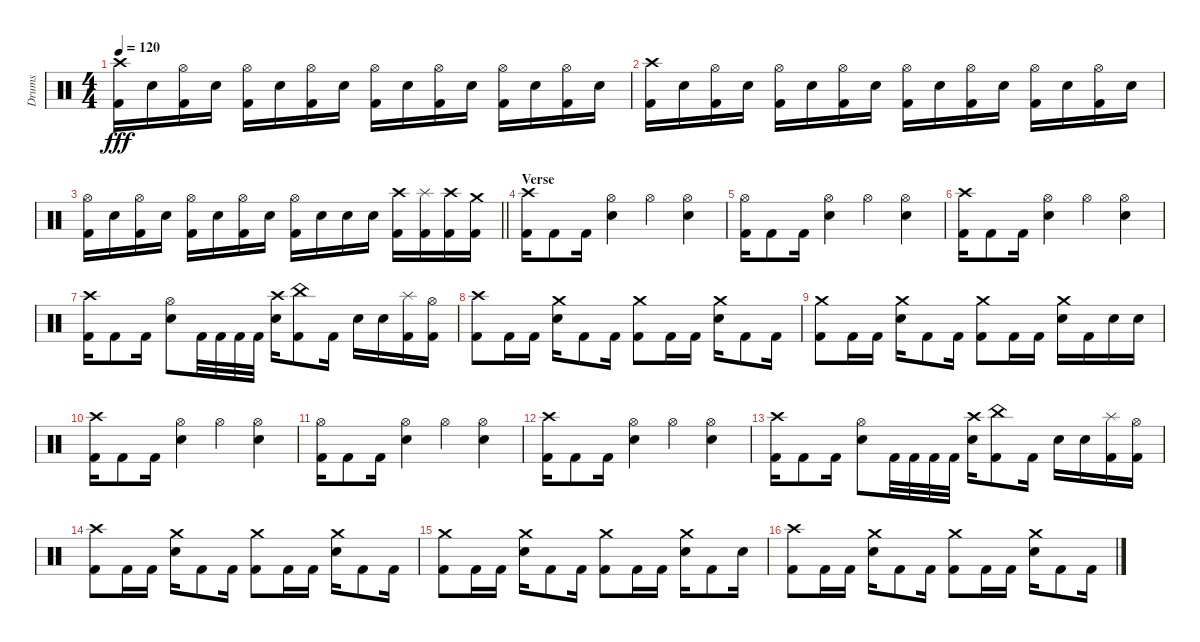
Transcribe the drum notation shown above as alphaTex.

\track ("Drums" "Drums") {instrument percussion}
\staff {score}
\articulation defaults
\ts (4 4)
\tempo 120
\clef neutral
\ks c
("Crash high (hit)" "Kick (hit) 2").16{dy fff} "Electric Snare (hit)".16 ("Hi-Hat (open)" "Kick (hit) 2").16 "Electric Snare (hit)".16 ("Hi-Hat (open)" "Kick (hit) 2").16 "Electric Snare (hit)".16 ("Hi-Hat (open)" "Kick (hit) 2").16 "Electric Snare (hit)".16 ("Hi-Hat (open)" "Kick (hit) 2").16 "Electric Snare (hit)".16 ("Hi-Hat (open)" "Kick (hit) 2").16 "Electric Snare (hit)".16 ("Hi-Hat (open)" "Kick (hit) 2").16 "Electric Snare (hit)".16 ("Hi-Hat (open)" "Kick (hit) 2").16 "Electric Snare (hit)".16 |
("Crash high (hit)" "Kick (hit) 2").16 "Electric Snare (hit)".16 ("Hi-Hat (open)" "Kick (hit) 2").16 "Electric Snare (hit)".16 ("Hi-Hat (open)" "Kick (hit) 2").16 "Electric Snare (hit)".16 ("Hi-Hat (open)" "Kick (hit) 2").16 "Electric Snare (hit)".16 ("Hi-Hat (open)" "Kick (hit) 2").16 "Electric Snare (hit)".16 ("Hi-Hat (open)" "Kick (hit) 2").16 "Electric Snare (hit)".16 ("Hi-Hat (open)" "Kick (hit) 2").16 "Electric Snare (hit)".16 ("Hi-Hat (open)" "Kick (hit) 2").16 "Electric Snare (hit)".16 |
\barLineRight lightlight
("Hi-Hat (open)" "Kick (hit) 2").16 "Electric Snare (hit)".16 ("Hi-Hat (open)" "Kick (hit) 2").16 "Electric Snare (hit)".16 ("Hi-Hat (open)" "Kick (hit) 2").16 "Electric Snare (hit)".16 ("Hi-Hat (open)" "Kick (hit) 2").16 "Electric Snare (hit)".16 ("Hi-Hat (open)" "Kick (hit) 2").16 "Electric Snare (hit)".16 "Electric Snare (hit)".16 "Electric Snare (hit)".16 ("Crash high (hit)" "Kick (hit) 2").16 ("Splash (hit)" "Kick (hit) 2").16 ("Crash high (hit)" "Kick (hit) 2").16 ("Crash medium (hit)" "Kick (hit) 2").16 |
\section ("" "Verse")
("Crash high (hit)" "Kick (hit) 2").16 "Kick (hit) 2".8 "Kick (hit) 2".16 ("Hi-Hat (open)" "Electric Snare (hit)").4 "Hi-Hat (open)".4 ("Hi-Hat (open)" "Electric Snare (hit)").4 |
("Hi-Hat (open)" "Kick (hit) 2").16 "Kick (hit) 2".8 "Kick (hit) 2".16 ("Hi-Hat (open)" "Electric Snare (hit)").4 "Hi-Hat (open)".4 ("Hi-Hat (open)" "Electric Snare (hit)").4 |
("Crash high (hit)" "Kick (hit) 2").16 "Kick (hit) 2".8 "Kick (hit) 2".16 ("Hi-Hat (open)" "Electric Snare (hit)").4 "Hi-Hat (open)".4 ("Hi-Hat (open)" "Electric Snare (hit)").4 |
("Crash high (hit)" "Kick (hit) 2").16 "Kick (hit) 2".8 "Kick (hit) 2".16 ("Hi-Hat (open)" "Electric Snare (hit)").8 "Kick (hit) 2".32 "Kick (hit) 2".32 "Kick (hit) 2".32 "Kick (hit) 2".32 ("Crash high (hit)" "Electric Snare (hit)").16 ("China (hit)" "Kick (hit) 2").8 "Kick (hit) 2".16 "Electric Snare (hit)".16 "Electric Snare (hit)".16 ("Splash (hit)" "Kick (hit) 2").16 ("Hi-Hat (open)" "Kick (hit) 2").16 |
("Crash high (hit)" "Kick (hit) 2").8 "Kick (hit) 2".16 "Kick (hit) 2".16 ("Crash medium (hit)" "Electric Snare (hit)").16 "Kick (hit) 2".8 "Kick (hit) 2".16 ("Crash medium (hit)" "Kick (hit) 2").8 "Kick (hit) 2".16 "Kick (hit) 2".16 ("Crash medium (hit)" "Electric Snare (hit)").16 "Kick (hit) 2".8 "Kick (hit) 2".16 |
("Crash medium (hit)" "Kick (hit) 2").8 "Kick (hit) 2".16 "Kick (hit) 2".16 ("Crash medium (hit)" "Electric Snare (hit)").16 "Kick (hit) 2".8 "Kick (hit) 2".16 ("Crash medium (hit)" "Kick (hit) 2").8 "Kick (hit) 2".16 "Kick (hit) 2".16 ("Crash medium (hit)" "Electric Snare (hit)").16 "Kick (hit) 2".16 "Electric Snare (hit)".16 "Electric Snare (hit)".16 |
("Crash high (hit)" "Kick (hit) 2").16 "Kick (hit) 2".8 "Kick (hit) 2".16 ("Hi-Hat (open)" "Electric Snare (hit)").4 "Hi-Hat (open)".4 ("Hi-Hat (open)" "Electric Snare (hit)").4 |
("Hi-Hat (open)" "Kick (hit) 2").16 "Kick (hit) 2".8 "Kick (hit) 2".16 ("Hi-Hat (open)" "Electric Snare (hit)").4 "Hi-Hat (open)".4 ("Hi-Hat (open)" "Electric Snare (hit)").4 |
("Crash high (hit)" "Kick (hit) 2").16 "Kick (hit) 2".8 "Kick (hit) 2".16 ("Hi-Hat (open)" "Electric Snare (hit)").4 "Hi-Hat (open)".4 ("Hi-Hat (open)" "Electric Snare (hit)").4 |
("Crash high (hit)" "Kick (hit) 2").16 "Kick (hit) 2".8 "Kick (hit) 2".16 ("Hi-Hat (open)" "Electric Snare (hit)").8 "Kick (hit) 2".32 "Kick (hit) 2".32 "Kick (hit) 2".32 "Kick (hit) 2".32 ("Crash high (hit)" "Electric Snare (hit)").16 ("China (hit)" "Kick (hit) 2").8 "Kick (hit) 2".16 "Electric Snare (hit)".16 "Electric Snare (hit)".16 ("Splash (hit)" "Kick (hit) 2").16 ("Hi-Hat (open)" "Kick (hit) 2").16 |
("Crash high (hit)" "Kick (hit) 2").8 "Kick (hit) 2".16 "Kick (hit) 2".16 ("Crash medium (hit)" "Electric Snare (hit)").16 "Kick (hit) 2".8 "Kick (hit) 2".16 ("Crash medium (hit)" "Kick (hit) 2").8 "Kick (hit) 2".16 "Kick (hit) 2".16 ("Crash medium (hit)" "Electric Snare (hit)").16 "Kick (hit) 2".8 "Kick (hit) 2".16 |
("Crash medium (hit)" "Kick (hit) 2").8 "Kick (hit) 2".16 "Kick (hit) 2".16 ("Crash medium (hit)" "Electric Snare (hit)").16 "Kick (hit) 2".8 "Kick (hit) 2".16 ("Crash medium (hit)" "Kick (hit) 2").8 "Kick (hit) 2".16 "Kick (hit) 2".16 ("Crash medium (hit)" "Electric Snare (hit)").16 "Kick (hit) 2".8 "Electric Snare (hit)".16 |
("Crash high (hit)" "Kick (hit) 2").8 "Kick (hit) 2".16 "Kick (hit) 2".16 ("Crash medium (hit)" "Electric Snare (hit)").16 "Kick (hit) 2".8 "Kick (hit) 2".16 ("Crash medium (hit)" "Kick (hit) 2").8 "Kick (hit) 2".16 "Kick (hit) 2".16 ("Crash medium (hit)" "Electric Snare (hit)").16 "Kick (hit) 2".8 "Kick (hit) 2".16
